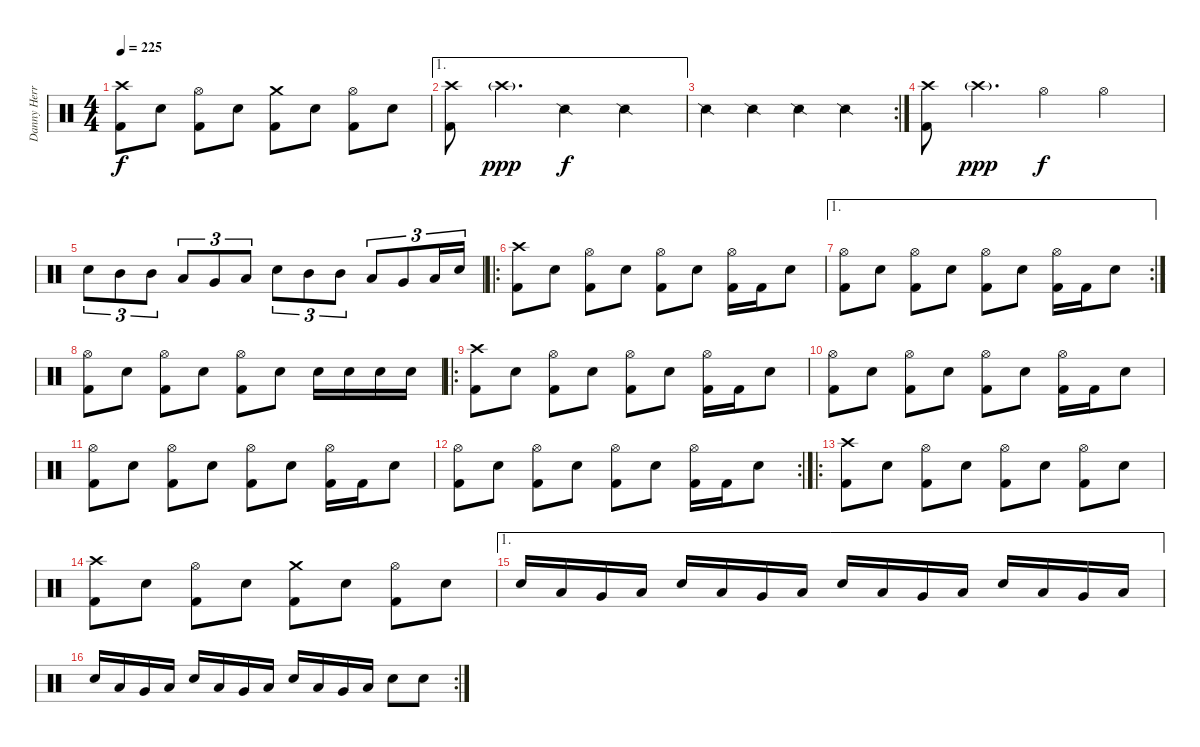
\track ("Danny Herrera - Drums" "Danny Herr") {instrument percussion}
\staff {score}
\articulation defaults
\ts (4 4)
\tempo 225
\clef neutral
\ks c
("Crash high (hit)" "Kick (hit) 2").8{dy f} "Electric Snare (hit)".8 ("Hi-Hat (open)" "Kick (hit) 2").8 "Electric Snare (hit)".8 ("Crash medium (hit)" "Kick (hit) 2").8 "Electric Snare (hit)".8 ("Hi-Hat (open)" "Kick (hit) 2").8 "Electric Snare (hit)".8 |
\ae 1
("Crash high (hit)" "Kick (hit) 2").8 "Crash high (hit)"{g}.4{d dy ppp} "Snare (side stick) 2".4{dy f} "Snare (side stick) 2".4 |
\rc 2 "Snare (side stick) 2".4 "Snare (side stick) 2".4 "Snare (side stick) 2".4 "Snare (side stick) 2".4
|
("Crash high (hit)" "Kick (hit) 2").8 "Crash high (hit)"{g}.4{d dy ppp} "Hi-Hat (open)".4{dy f} "Hi-Hat (open)".4 |
"Electric Snare (hit)".8{tu (3 2)} "Mid Tom (hit)".8{tu (3 2)} "Mid Tom (hit)".8{tu (3 2)} "Low Tom (hit)".8{tu (3 2)} "Very Low Tom (hit)".8{tu (3 2)} "Low Floor Tom (hit)".8{tu (3 2)} "Electric Snare (hit)".8{tu (3 2)} "Mid Tom (hit)".8{tu (3 2)} "Mid Tom (hit)".8{tu (3 2)} "Low Tom (hit)".8{tu (3 2)} "Very Low Tom (hit)".8{tu (3 2)} "Low Floor Tom (hit)".16{tu (3 2)} "Electric Snare (hit)".16{tu (3 2)} |
\ro
("Crash high (hit)" "Kick (hit) 2").8 "Electric Snare (hit)".8 ("Hi-Hat (open)" "Kick (hit) 2").8 "Electric Snare (hit)".8 ("Hi-Hat (open)" "Kick (hit) 2").8 "Electric Snare (hit)".8 ("Hi-Hat (open)" "Kick (hit) 2").16 "Kick (hit) 2".16 "Electric Snare (hit)".8 |
\ae 1
\rc 2
("Hi-Hat (open)" "Kick (hit) 2").8 "Electric Snare (hit)".8 ("Hi-Hat (open)" "Kick (hit) 2").8 "Electric Snare (hit)".8 ("Hi-Hat (open)" "Kick (hit) 2").8 "Electric Snare (hit)".8 ("Hi-Hat (open)" "Kick (hit) 2").16 "Kick (hit) 2".16 "Electric Snare (hit)".8 |
("Hi-Hat (open)" "Kick (hit) 2").8 "Electric Snare (hit)".8 ("Hi-Hat (open)" "Kick (hit) 2").8 "Electric Snare (hit)".8 ("Hi-Hat (open)" "Kick (hit) 2").8 "Electric Snare (hit)".8 "Electric Snare (hit)".16 "Electric Snare (hit)".16 "Electric Snare (hit)".16 "Electric Snare (hit)".16 |
\ro
("Crash high (hit)" "Kick (hit) 2").8 "Electric Snare (hit)".8 ("Hi-Hat (open)" "Kick (hit) 2").8 "Electric Snare (hit)".8 ("Hi-Hat (open)" "Kick (hit) 2").8 "Electric Snare (hit)".8 ("Hi-Hat (open)" "Kick (hit) 2").16 "Kick (hit) 2".16 "Electric Snare (hit)".8 |
("Hi-Hat (open)" "Kick (hit) 2").8 "Electric Snare (hit)".8 ("Hi-Hat (open)" "Kick (hit) 2").8 "Electric Snare (hit)".8 ("Hi-Hat (open)" "Kick (hit) 2").8 "Electric Snare (hit)".8 ("Hi-Hat (open)" "Kick (hit) 2").16 "Kick (hit) 2".16 "Electric Snare (hit)".8 |
("Hi-Hat (open)" "Kick (hit) 2").8 "Electric Snare (hit)".8 ("Hi-Hat (open)" "Kick (hit) 2").8 "Electric Snare (hit)".8 ("Hi-Hat (open)" "Kick (hit) 2").8 "Electric Snare (hit)".8 ("Hi-Hat (open)" "Kick (hit) 2").16 "Kick (hit) 2".16 "Electric Snare (hit)".8 |
\rc 2
("Hi-Hat (open)" "Kick (hit) 2").8 "Electric Snare (hit)".8 ("Hi-Hat (open)" "Kick (hit) 2").8 "Electric Snare (hit)".8 ("Hi-Hat (open)" "Kick (hit) 2").8 "Electric Snare (hit)".8 ("Hi-Hat (open)" "Kick (hit) 2").16 "Kick (hit) 2".16 "Electric Snare (hit)".8 |
\ro
("Crash high (hit)" "Kick (hit) 2").8 "Electric Snare (hit)".8 ("Hi-Hat (open)" "Kick (hit) 2").8 "Electric Snare (hit)".8 ("Hi-Hat (open)" "Kick (hit) 2").8 "Electric Snare (hit)".8 ("Hi-Hat (open)" "Kick (hit) 2").8 "Electric Snare (hit)".8 |
("Crash high (hit)" "Kick (hit) 2").8 "Electric Snare (hit)".8 ("Hi-Hat (open)" "Kick (hit) 2").8 "Electric Snare (hit)".8 ("Crash medium (hit)" "Kick (hit) 2").8 "Electric Snare (hit)".8 ("Hi-Hat (open)" "Kick (hit) 2").8 "Electric Snare (hit)".8 |
\ae 1 "Electric Snare (hit)".16 "Low Tom (hit)".16 "Very Low Tom (hit)".16 "Low Floor Tom (hit)".16 "Electric Snare (hit)".16 "Low Tom (hit)".16 "Very Low Tom (hit)".16 "Low Floor Tom (hit)".16 "Electric Snare (hit)".16 "Low Tom (hit)".16 "Very Low Tom (hit)".16 "Low Floor Tom (hit)".16 "Electric Snare (hit)".16 "Low Tom (hit)".16 "Very Low Tom (hit)".16 "Low Floor Tom (hit)".16
|
\rc 2 "Electric Snare (hit)".16 "Low Tom (hit)".16 "Very Low Tom (hit)".16 "Low Floor Tom (hit)".16 "Electric Snare (hit)".16 "Low Tom (hit)".16 "Very Low Tom (hit)".16 "Low Floor Tom (hit)".16 "Electric Snare (hit)".16 "Low Tom (hit)".16 "Very Low Tom (hit)".16 "Low Floor Tom (hit)".16 "Electric Snare (hit)".8 "Electric Snare (hit)".8
